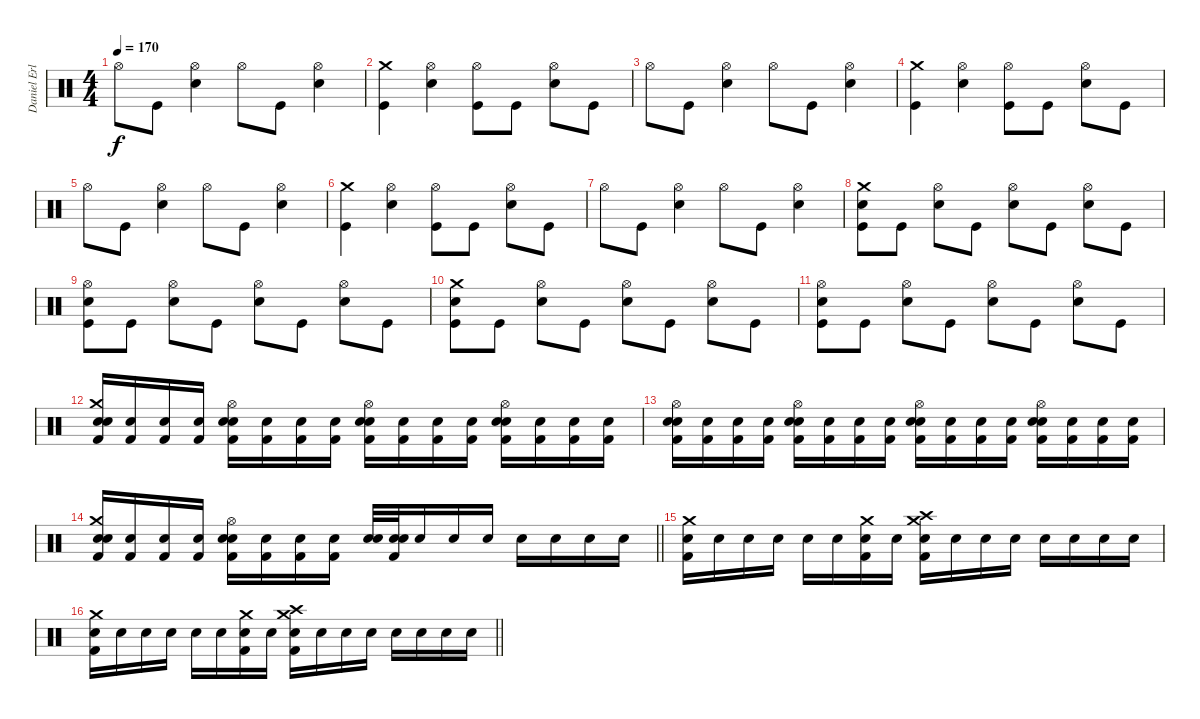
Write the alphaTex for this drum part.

\track ("Daniel Erlandson" "Daniel Erl") {instrument percussion}
\staff {score}
\articulation defaults
\ts (4 4)
\tempo 170
\clef neutral
\ks c "Hi-Hat (open)".8{dy f} "Kick (hit)".8
("Hi-Hat (open)" "Electric Snare (hit)").4 "Hi-Hat (open)".8 "Kick (hit)".8 ("Hi-Hat (open)" "Electric Snare (hit)").4 |
("Crash medium (hit)" "Kick (hit)").4 ("Hi-Hat (open)" "Electric Snare (hit)").4 ("Hi-Hat (open)" "Kick (hit)").8 "Kick (hit)".8 ("Hi-Hat (open)" "Electric Snare (hit)").8 "Kick (hit)".8 |
"Hi-Hat (open)".8 "Kick (hit)".8 ("Hi-Hat (open)" "Electric Snare (hit)").4 "Hi-Hat (open)".8 "Kick (hit)".8 ("Hi-Hat (open)" "Electric Snare (hit)").4 |
("Crash medium (hit)" "Kick (hit)").4 ("Hi-Hat (open)" "Electric Snare (hit)").4 ("Hi-Hat (open)" "Kick (hit)").8 "Kick (hit)".8 ("Hi-Hat (open)" "Electric Snare (hit)").8 "Kick (hit)".8 |
"Hi-Hat (open)".8 "Kick (hit)".8 ("Hi-Hat (open)" "Electric Snare (hit)").4 "Hi-Hat (open)".8 "Kick (hit)".8 ("Hi-Hat (open)" "Electric Snare (hit)").4 |
("Crash medium (hit)" "Kick (hit)").4 ("Hi-Hat (open)" "Electric Snare (hit)").4 ("Hi-Hat (open)" "Kick (hit)").8 "Kick (hit)".8 ("Hi-Hat (open)" "Electric Snare (hit)").8 "Kick (hit)".8 |
"Hi-Hat (open)".8 "Kick (hit)".8 ("Hi-Hat (open)" "Electric Snare (hit)").4 "Hi-Hat (open)".8 "Kick (hit)".8 ("Hi-Hat (open)" "Electric Snare (hit)").4 |
("Crash medium (hit)" "Electric Snare (hit)" "Kick (hit)").8 "Kick (hit)".8 ("Hi-Hat (open)" "Electric Snare (hit)").8 "Kick (hit)".8 ("Hi-Hat (open)" "Electric Snare (hit)").8 "Kick (hit)".8 ("Hi-Hat (open)" "Electric Snare (hit)").8 "Kick (hit)".8 |
("Hi-Hat (open)" "Electric Snare (hit)" "Kick (hit)").8 "Kick (hit)".8 ("Hi-Hat (open)" "Electric Snare (hit)").8 "Kick (hit)".8 ("Hi-Hat (open)" "Electric Snare (hit)").8 "Kick (hit)".8 ("Hi-Hat (open)" "Electric Snare (hit)").8 "Kick (hit)".8 |
("Crash medium (hit)" "Electric Snare (hit)" "Kick (hit)").8 "Kick (hit)".8 ("Hi-Hat (open)" "Electric Snare (hit)").8 "Kick (hit)".8 ("Hi-Hat (open)" "Electric Snare (hit)").8 "Kick (hit)".8 ("Hi-Hat (open)" "Electric Snare (hit)").8 "Kick (hit)".8 |
("Hi-Hat (open)" "Electric Snare (hit)" "Kick (hit)").8 "Kick (hit)".8 ("Hi-Hat (open)" "Electric Snare (hit)").8 "Kick (hit)".8 ("Hi-Hat (open)" "Electric Snare (hit)").8 "Kick (hit)".8 ("Hi-Hat (open)" "Electric Snare (hit)").8 "Kick (hit)".8 |
("Snare (hit)"{x} "Crash medium (hit)" "Electric Snare (hit)" "Kick (hit) 2").16 ("Snare (hit)"{x} "Kick (hit) 2").16 ("Snare (hit)"{x} "Kick (hit) 2").16 ("Snare (hit)"{x} "Kick (hit) 2").16 ("Snare (hit)"{x} "Hi-Hat (open)" "Electric Snare (hit)" "Kick (hit) 2").16 ("Snare (hit)"{x} "Kick (hit) 2").16 ("Snare (hit)"{x} "Kick (hit) 2").16 ("Snare (hit)"{x} "Kick (hit) 2").16 ("Snare (hit)"{x} "Hi-Hat (open)" "Electric Snare (hit)" "Kick (hit) 2").16 ("Snare (hit)"{x} "Kick (hit) 2").16 ("Snare (hit)"{x} "Kick (hit) 2").16 ("Snare (hit)"{x} "Kick (hit) 2").16 ("Snare (hit)"{x} "Hi-Hat (open)" "Electric Snare (hit)" "Kick (hit) 2").16 ("Snare (hit)"{x} "Kick (hit) 2").16 ("Snare (hit)"{x} "Kick (hit) 2").16 ("Snare (hit)"{x} "Kick (hit) 2").16 |
("Snare (hit)"{x} "Hi-Hat (open)" "Electric Snare (hit)" "Kick (hit) 2").16 ("Snare (hit)"{x} "Kick (hit) 2").16 ("Snare (hit)"{x} "Kick (hit) 2").16 ("Snare (hit)"{x} "Kick (hit) 2").16 ("Snare (hit)"{x} "Hi-Hat (open)" "Electric Snare (hit)" "Kick (hit) 2").16 ("Snare (hit)"{x} "Kick (hit) 2").16 ("Snare (hit)"{x} "Kick (hit) 2").16 ("Snare (hit)"{x} "Kick (hit) 2").16 ("Snare (hit)"{x} "Hi-Hat (open)" "Electric Snare (hit)" "Kick (hit) 2").16 ("Snare (hit)"{x} "Kick (hit) 2").16 ("Snare (hit)"{x} "Kick (hit) 2").16 ("Snare (hit)"{x} "Kick (hit) 2").16 ("Snare (hit)"{x} "Hi-Hat (open)" "Electric Snare (hit)" "Kick (hit) 2").16 ("Snare (hit)"{x} "Kick (hit) 2").16 ("Snare (hit)"{x} "Kick (hit) 2").16 ("Snare (hit)"{x} "Kick (hit) 2").16 |
\barLineRight lightlight
("Snare (hit)"{x} "Crash medium (hit)" "Electric Snare (hit)" "Kick (hit) 2").16 ("Snare (hit)"{x} "Kick (hit) 2").16 ("Snare (hit)"{x} "Kick (hit) 2").16 ("Snare (hit)"{x} "Kick (hit) 2").16 ("Snare (hit)"{x} "Hi-Hat (open)" "Electric Snare (hit)" "Kick (hit) 2").16 ("Snare (hit)"{x} "Kick (hit) 2").16 ("Snare (hit)"{x} "Kick (hit) 2").16 ("Snare (hit)"{x} "Kick (hit) 2").16 ("Snare (hit)"{x} "Electric Snare (hit)").32 ("Snare (hit)"{x} "Electric Snare (hit)" "Kick (hit) 2").32 "Snare (hit)"{x}.16 "Snare (hit)"{x}.16 "Snare (hit)"{x}.16 "Snare (hit)"{x}.16 "Snare (hit)"{x}.16 "Snare (hit)"{x}.16 "Snare (hit)"{x}.16 |
\section ("" "")
("Snare (hit)"{x} "Crash medium (hit)" "Kick (hit) 2").16 "Snare (hit)"{x}.16 "Snare (hit)"{x}.16 "Snare (hit)"{x}.16 "Snare (hit)"{x}.16 "Snare (hit)"{x}.16 ("Snare (hit)"{x} "Crash medium (hit)" "Kick (hit) 2").16 "Snare (hit)"{x}.16 ("Snare (hit)"{x} "Crash medium (hit)" "Crash high (hit)" "Kick (hit) 2").16 "Snare (hit)"{x}.16 "Snare (hit)"{x}.16 "Snare (hit)"{x}.16 "Snare (hit)"{x}.16 "Snare (hit)"{x}.16 "Snare (hit)"{x}.16 "Snare (hit)"{x}.16 |
\barLineRight lightlight
("Snare (hit)"{x} "Crash medium (hit)" "Kick (hit) 2").16 "Snare (hit)"{x}.16 "Snare (hit)"{x}.16 "Snare (hit)"{x}.16 "Snare (hit)"{x}.16 "Snare (hit)"{x}.16 ("Snare (hit)"{x} "Crash medium (hit)" "Kick (hit) 2").16 "Snare (hit)"{x}.16 ("Snare (hit)"{x} "Crash medium (hit)" "Crash high (hit)" "Kick (hit) 2").16 "Snare (hit)"{x}.16 "Snare (hit)"{x}.16 "Snare (hit)"{x}.16 "Snare (hit)"{x}.16 "Snare (hit)"{x}.16 "Snare (hit)"{x}.16 "Snare (hit)"{x}.16
